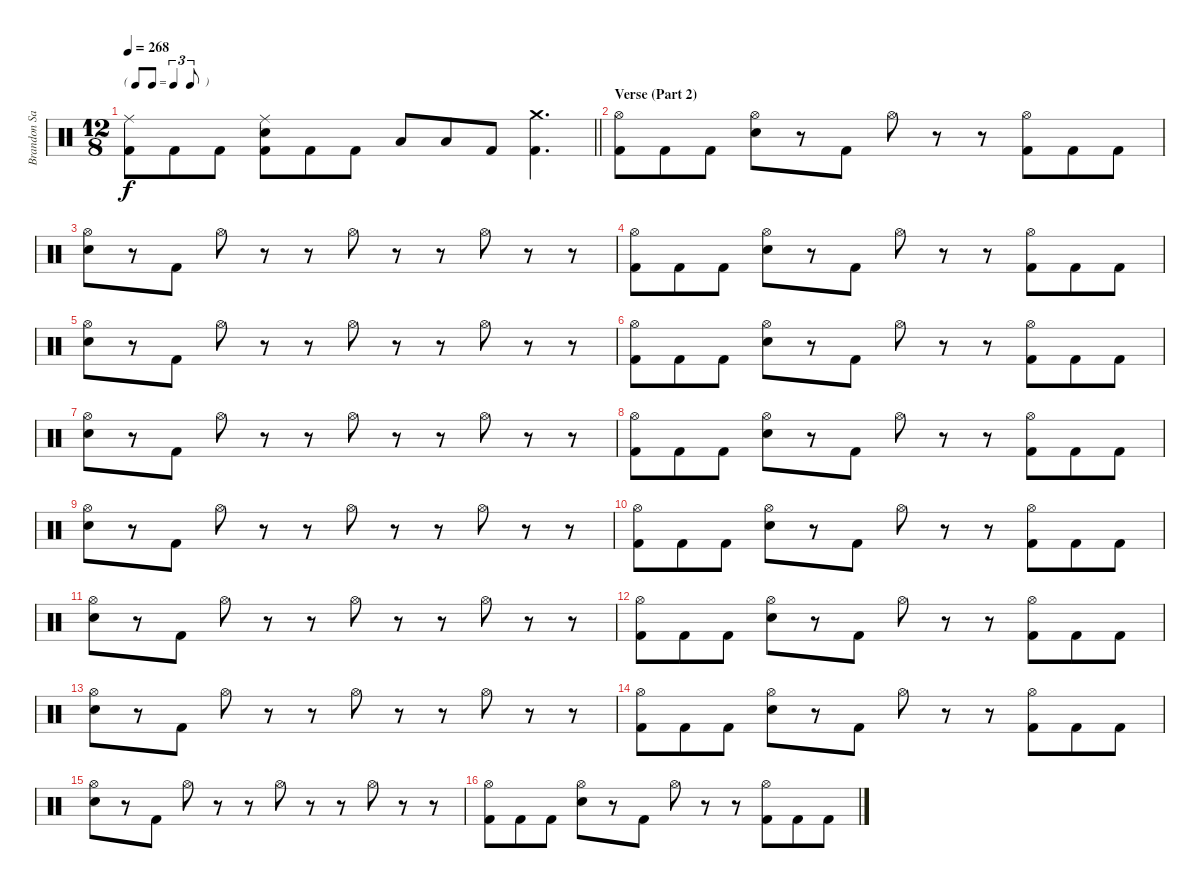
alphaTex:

\track ("Brandon Saller" "Brandon Sa") {instrument percussion}
\staff {score}
\articulation defaults
\ts (12 8)
\tf triplet8th
\tempo 268
\clef neutral
\barLineRight lightlight
\ks c
("Ride (middle)" "Kick (hit) 2").8{dy f} "Kick (hit) 2".8 "Kick (hit) 2".8 ("Ride (middle)" "Electric Snare (hit)" "Kick (hit) 2").8 "Kick (hit) 2".8 "Kick (hit) 2".8 "Low Tom (hit)".8 "Low Floor Tom (hit)".8 "Kick (hit) 2".8 ("Crash medium (hit)" "Kick (hit) 2").4{d} |
\section ("" "Verse (Part 2)")
("Hi-Hat (open)" "Kick (hit) 2").8 "Kick (hit) 2".8 "Kick (hit) 2".8 ("Hi-Hat (open)" "Electric Snare (hit)").8 r.8 "Kick (hit) 2".8 "Hi-Hat (open)".8 r.8 r.8 ("Hi-Hat (open)" "Kick (hit) 2").8 "Kick (hit) 2".8 "Kick (hit) 2".8 |
("Hi-Hat (open)" "Electric Snare (hit)").8 r.8 "Kick (hit) 2".8 "Hi-Hat (open)".8 r.8 r.8 "Hi-Hat (open)".8 r.8 r.8 "Hi-Hat (open)".8 r.8 r.8 |
("Hi-Hat (open)" "Kick (hit) 2").8 "Kick (hit) 2".8 "Kick (hit) 2".8 ("Hi-Hat (open)" "Electric Snare (hit)").8 r.8 "Kick (hit) 2".8 "Hi-Hat (open)".8 r.8 r.8 ("Hi-Hat (open)" "Kick (hit) 2").8 "Kick (hit) 2".8 "Kick (hit) 2".8 |
("Hi-Hat (open)" "Electric Snare (hit)").8 r.8 "Kick (hit) 2".8 "Hi-Hat (open)".8 r.8 r.8 "Hi-Hat (open)".8 r.8 r.8 "Hi-Hat (open)".8 r.8 r.8 |
("Hi-Hat (open)" "Kick (hit) 2").8 "Kick (hit) 2".8 "Kick (hit) 2".8 ("Hi-Hat (open)" "Electric Snare (hit)").8 r.8 "Kick (hit) 2".8 "Hi-Hat (open)".8 r.8 r.8 ("Hi-Hat (open)" "Kick (hit) 2").8 "Kick (hit) 2".8 "Kick (hit) 2".8 |
("Hi-Hat (open)" "Electric Snare (hit)").8 r.8 "Kick (hit) 2".8 "Hi-Hat (open)".8 r.8 r.8 "Hi-Hat (open)".8 r.8 r.8 "Hi-Hat (open)".8 r.8 r.8 |
("Hi-Hat (open)" "Kick (hit) 2").8 "Kick (hit) 2".8 "Kick (hit) 2".8 ("Hi-Hat (open)" "Electric Snare (hit)").8 r.8 "Kick (hit) 2".8 "Hi-Hat (open)".8 r.8 r.8 ("Hi-Hat (open)" "Kick (hit) 2").8 "Kick (hit) 2".8 "Kick (hit) 2".8 |
("Hi-Hat (open)" "Electric Snare (hit)").8 r.8 "Kick (hit) 2".8 "Hi-Hat (open)".8 r.8 r.8 "Hi-Hat (open)".8 r.8 r.8 "Hi-Hat (open)".8 r.8 r.8 |
("Hi-Hat (open)" "Kick (hit) 2").8 "Kick (hit) 2".8 "Kick (hit) 2".8 ("Hi-Hat (open)" "Electric Snare (hit)").8 r.8 "Kick (hit) 2".8 "Hi-Hat (open)".8 r.8 r.8 ("Hi-Hat (open)" "Kick (hit) 2").8 "Kick (hit) 2".8 "Kick (hit) 2".8 |
("Hi-Hat (open)" "Electric Snare (hit)").8 r.8 "Kick (hit) 2".8 "Hi-Hat (open)".8 r.8 r.8 "Hi-Hat (open)".8 r.8 r.8 "Hi-Hat (open)".8 r.8 r.8 |
("Hi-Hat (open)" "Kick (hit) 2").8 "Kick (hit) 2".8 "Kick (hit) 2".8 ("Hi-Hat (open)" "Electric Snare (hit)").8 r.8 "Kick (hit) 2".8 "Hi-Hat (open)".8 r.8 r.8 ("Hi-Hat (open)" "Kick (hit) 2").8 "Kick (hit) 2".8 "Kick (hit) 2".8 |
("Hi-Hat (open)" "Electric Snare (hit)").8 r.8 "Kick (hit) 2".8 "Hi-Hat (open)".8 r.8 r.8 "Hi-Hat (open)".8 r.8 r.8 "Hi-Hat (open)".8 r.8 r.8 |
("Hi-Hat (open)" "Kick (hit) 2").8 "Kick (hit) 2".8 "Kick (hit) 2".8 ("Hi-Hat (open)" "Electric Snare (hit)").8 r.8 "Kick (hit) 2".8 "Hi-Hat (open)".8 r.8 r.8 ("Hi-Hat (open)" "Kick (hit) 2").8 "Kick (hit) 2".8 "Kick (hit) 2".8 |
("Hi-Hat (open)" "Electric Snare (hit)").8 r.8 "Kick (hit) 2".8 "Hi-Hat (open)".8 r.8 r.8 "Hi-Hat (open)".8 r.8 r.8 "Hi-Hat (open)".8 r.8 r.8 |
("Hi-Hat (open)" "Kick (hit) 2").8 "Kick (hit) 2".8 "Kick (hit) 2".8 ("Hi-Hat (open)" "Electric Snare (hit)").8 r.8 "Kick (hit) 2".8 "Hi-Hat (open)".8 r.8 r.8 ("Hi-Hat (open)" "Kick (hit) 2").8 "Kick (hit) 2".8 "Kick (hit) 2".8
